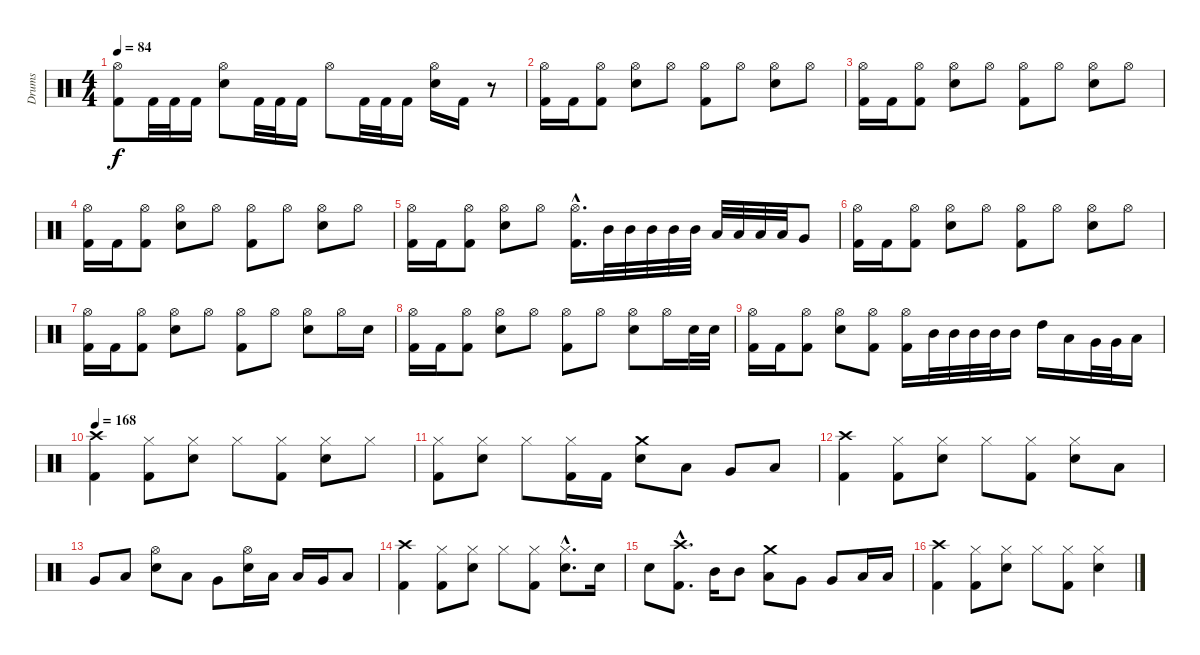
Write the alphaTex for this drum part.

\track ("Drums" "Drums") {instrument percussion}
\staff {score}
\articulation defaults
\ts (4 4)
\tempo 84
\clef neutral
\ks c
("Hi-Hat (open)" "Kick (hit) 2").8{dy f} "Kick (hit) 2".32 "Kick (hit) 2".32 "Kick (hit) 2".16 ("Hi-Hat (open)" "Electric Snare (hit)").8 "Kick (hit) 2".32 "Kick (hit) 2".32 "Kick (hit) 2".16 "Hi-Hat (open)".8 "Kick (hit) 2".32 "Kick (hit) 2".32 "Kick (hit) 2".16 ("Hi-Hat (open)" "Electric Snare (hit)").16 "Kick (hit) 2".16 r.8 |
("Hi-Hat (open)" "Kick (hit) 2").16 "Kick (hit) 2".16 ("Hi-Hat (open)" "Kick (hit) 2").8 ("Hi-Hat (open)" "Electric Snare (hit)").8 "Hi-Hat (open)".8 ("Hi-Hat (open)" "Kick (hit) 2").8 "Hi-Hat (open)".8 ("Hi-Hat (open)" "Electric Snare (hit)").8 "Hi-Hat (open)".8 |
("Hi-Hat (open)" "Kick (hit) 2").16 "Kick (hit) 2".16 ("Hi-Hat (open)" "Kick (hit) 2").8 ("Hi-Hat (open)" "Electric Snare (hit)").8 "Hi-Hat (open)".8 ("Hi-Hat (open)" "Kick (hit) 2").8 "Hi-Hat (open)".8 ("Hi-Hat (open)" "Electric Snare (hit)").8 "Hi-Hat (open)".8 |
("Hi-Hat (open)" "Kick (hit) 2").16 "Kick (hit) 2".16 ("Hi-Hat (open)" "Kick (hit) 2").8 ("Hi-Hat (open)" "Electric Snare (hit)").8 "Hi-Hat (open)".8 ("Hi-Hat (open)" "Kick (hit) 2").8 "Hi-Hat (open)".8 ("Hi-Hat (open)" "Electric Snare (hit)").8 "Hi-Hat (open)".8 |
("Hi-Hat (open)" "Kick (hit) 2").16 "Kick (hit) 2".16 ("Hi-Hat (open)" "Kick (hit) 2").8 ("Hi-Hat (open)" "Electric Snare (hit)").8 "Hi-Hat (open)".8 ("Hi-Hat (open)"{hac} "Kick (hit) 2"{hac}).16{d} "Mid Tom (hit)".32 "Mid Tom (hit)".32 "Mid Tom (hit)".32 "Mid Tom (hit)".32 "Mid Tom (hit)".32 "Low Tom (hit)".32 "Low Tom (hit)".32 "Low Tom (hit)".32 "Low Tom (hit)".32 "Very Low Tom (hit)".8 |
("Hi-Hat (open)" "Kick (hit) 2").16 "Kick (hit) 2".16 ("Hi-Hat (open)" "Kick (hit) 2").8 ("Hi-Hat (open)" "Electric Snare (hit)").8 "Hi-Hat (open)".8 ("Hi-Hat (open)" "Kick (hit) 2").8 "Hi-Hat (open)".8 ("Hi-Hat (open)" "Electric Snare (hit)").8 "Hi-Hat (open)".8 |
("Hi-Hat (open)" "Kick (hit) 2").16 "Kick (hit) 2".16 ("Hi-Hat (open)" "Kick (hit) 2").8 ("Hi-Hat (open)" "Electric Snare (hit)").8 "Hi-Hat (open)".8 ("Hi-Hat (open)" "Kick (hit) 2").8 "Hi-Hat (open)".8 ("Hi-Hat (open)" "Electric Snare (hit)").8 "Hi-Hat (open)".16 "Electric Snare (hit)".16 |
("Hi-Hat (open)" "Kick (hit) 2").16 "Kick (hit) 2".16 ("Hi-Hat (open)" "Kick (hit) 2").8 ("Hi-Hat (open)" "Electric Snare (hit)").8 "Hi-Hat (open)".8 ("Hi-Hat (open)" "Kick (hit) 2").8 "Hi-Hat (open)".8 ("Hi-Hat (open)" "Electric Snare (hit)").8 "Hi-Hat (open)".16 "Electric Snare (hit)".32 "Electric Snare (hit)".32 |
("Hi-Hat (open)" "Kick (hit) 2").16 "Kick (hit) 2".16 ("Hi-Hat (open)" "Kick (hit) 2").8 ("Hi-Hat (open)" "Electric Snare (hit)").8 ("Hi-Hat (open)" "Kick (hit) 2").8 ("Hi-Hat (open)" "Kick (hit) 2").16 "Mid Tom (hit)".32 "Mid Tom (hit)".32 "Mid Tom (hit)".32 "Mid Tom (hit)".32 "Mid Tom (hit)".16 "High Tom (hit)".16 "Low Tom (hit)".16 "Very Low Tom (hit)".32 "Very Low Tom (hit)".32 "Low Floor Tom (hit)".16 |
\tempo 168
("Crash high (hit)" "Kick (hit) 2").4 ("Hi-Hat (closed)" "Kick (hit) 2").8 ("Hi-Hat (closed)" "Electric Snare (hit)").8 "Hi-Hat (closed)".8 ("Hi-Hat (closed)" "Kick (hit) 2").8 ("Hi-Hat (closed)" "Electric Snare (hit)").8 "Hi-Hat (closed)".8 |
("Hi-Hat (closed)" "Kick (hit) 2").8 ("Hi-Hat (closed)" "Electric Snare (hit)").8 "Hi-Hat (closed)".8 ("Hi-Hat (closed)" "Kick (hit) 2").16 "Kick (hit) 2".16 ("Crash medium (hit)" "Electric Snare (hit)").8 "Low Tom (hit)".8 "Very Low Tom (hit)".8 "Low Floor Tom (hit)".8 |
("Crash high (hit)" "Kick (hit) 2").4 ("Hi-Hat (closed)" "Kick (hit) 2").8 ("Hi-Hat (closed)" "Electric Snare (hit)").8 "Hi-Hat (closed)".8 ("Hi-Hat (closed)" "Kick (hit) 2").8 ("Hi-Hat (closed)" "Electric Snare (hit)").8 "Low Tom (hit)".8 |
"Very Low Tom (hit)".8 "Low Floor Tom (hit)".8 ("Hi-Hat (open)" "Electric Snare (hit)").8 "Low Tom (hit)".8 "Very Low Tom (hit)".8 ("Hi-Hat (open)" "Electric Snare (hit)").16 "Low Floor Tom (hit)".16 "Low Tom (hit)".16 "Very Low Tom (hit)".16 "Low Floor Tom (hit)".8 |
("Crash high (hit)" "Kick (hit) 2").4 ("Hi-Hat (closed)" "Kick (hit) 2").8 ("Hi-Hat (closed)" "Electric Snare (hit)").8 "Hi-Hat (closed)".8 ("Hi-Hat (closed)" "Kick (hit) 2").8 ("Hi-Hat (closed)"{hac} "Electric Snare (hit)"{hac}).8{d} "Electric Snare (hit)".16 |
"Electric Snare (hit)".8 ("Crash high (hit)"{hac} "Kick (hit) 2"{hac}).8{d} "Mid Tom (hit)".16 "Mid Tom (hit)".8 ("Crash medium (hit)" "Low Tom (hit)").8 "Very Low Tom (hit)".8 "Very Low Tom (hit)".8 "Low Floor Tom (hit)".16 "Low Floor Tom (hit)".16 |
("Crash high (hit)" "Kick (hit) 2").4 ("Hi-Hat (closed)" "Kick (hit) 2").8 ("Hi-Hat (closed)" "Electric Snare (hit)").8 "Hi-Hat (closed)".8 ("Hi-Hat (closed)" "Kick (hit) 2").8 ("Hi-Hat (closed)" "Electric Snare (hit)").4
